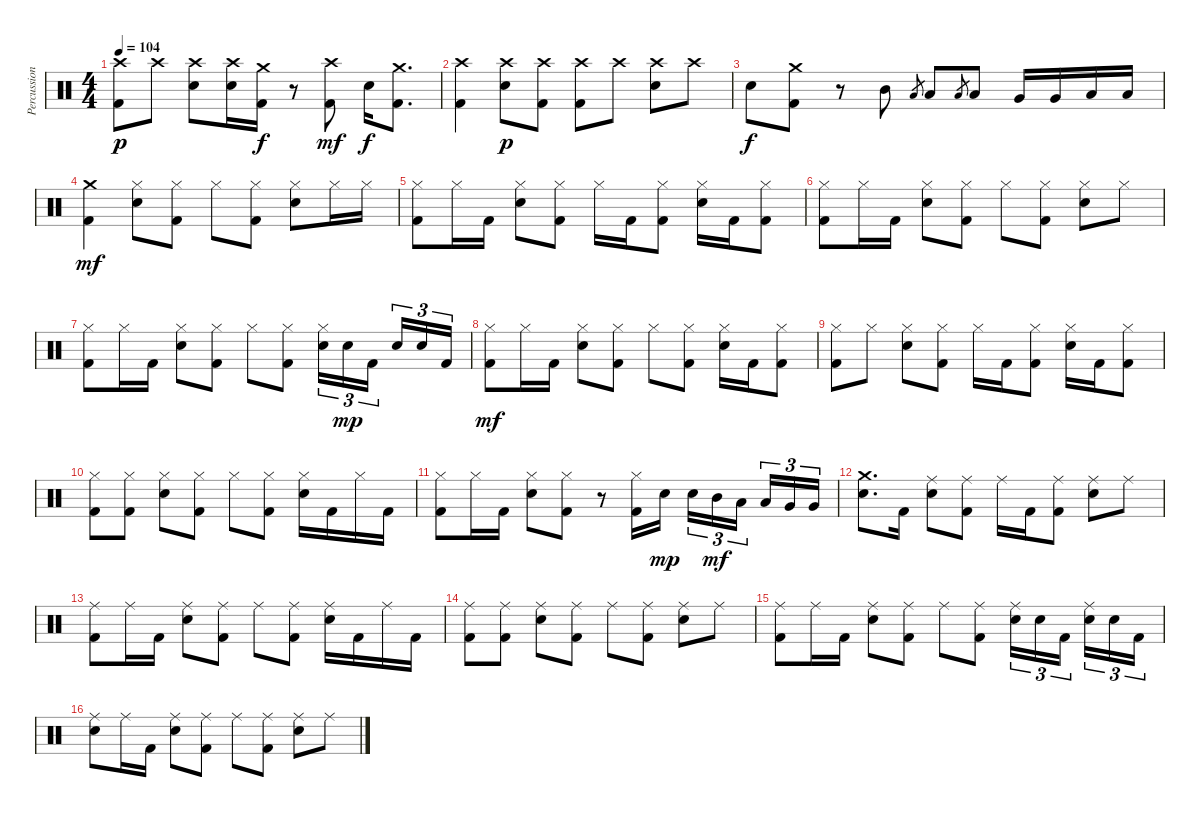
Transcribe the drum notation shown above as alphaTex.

\track ("Percussion" "Percussion") {instrument percussion}
\staff {score}
\articulation defaults
\ts (4 4)
\tempo 104
\clef neutral
\ks c
("Kick (hit) 2" "Crash high (hit)").8{dy p} "Crash high (hit)".8 ("Electric Snare (hit)" "Crash high (hit)").8 ("Electric Snare (hit)" "Crash high (hit)").16 ("Kick (hit) 2" "Crash medium (hit)").16{dy f} r.8 ("Kick (hit) 2" "Crash high (hit)").8{dy mf} "Electric Snare (hit)".16{dy f} ("Kick (hit) 2" "Crash medium (hit)").8{d} |
("Kick (hit) 2" "Crash high (hit)").4 ("Electric Snare (hit)" "Crash high (hit)").8{dy p} ("Kick (hit) 2" "Crash high (hit)").8 ("Kick (hit) 2" "Crash high (hit)").8 "Crash high (hit)".8 ("Electric Snare (hit)" "Crash high (hit)").8 "Crash high (hit)".8 |
"Electric Snare (hit)".8{dy f} ("Kick (hit) 2" "Crash medium (hit)").8 r.8 "Mid Tom (hit)".8 "Low Tom (hit)".8{gr} "Low Tom (hit)".8 "Low Tom (hit)".8{gr} "Low Tom (hit)".8 "Very Low Tom (hit)".16 "Very Low Tom (hit)".16 "Low Floor Tom (hit)".16 "Low Floor Tom (hit)".16 |
("Kick (hit) 2" "Crash medium (hit)").4{dy mf} ("Electric Snare (hit)" "Hi-Hat (closed)").8 ("Kick (hit) 2" "Hi-Hat (closed)").8 "Hi-Hat (closed)".8 ("Kick (hit) 2" "Hi-Hat (closed)").8 ("Electric Snare (hit)" "Hi-Hat (closed)").8 "Hi-Hat (closed)".16 "Hi-Hat (closed)".16 |
("Kick (hit) 2" "Hi-Hat (closed)").8 "Hi-Hat (closed)".16 "Kick (hit) 2".16 ("Electric Snare (hit)" "Hi-Hat (closed)").8 ("Kick (hit) 2" "Hi-Hat (closed)").8 "Hi-Hat (closed)".16 "Kick (hit) 2".16 ("Kick (hit) 2" "Hi-Hat (closed)").8 ("Electric Snare (hit)" "Hi-Hat (closed)").16 "Kick (hit) 2".16 ("Kick (hit) 2" "Hi-Hat (closed)").8 |
("Kick (hit) 2" "Hi-Hat (closed)").8 "Hi-Hat (closed)".16 "Kick (hit) 2".16 ("Electric Snare (hit)" "Hi-Hat (closed)").8 ("Kick (hit) 2" "Hi-Hat (closed)").8 "Hi-Hat (closed)".8 ("Kick (hit) 2" "Hi-Hat (closed)").8 ("Electric Snare (hit)" "Hi-Hat (closed)").8 "Hi-Hat (closed)".8 |
("Kick (hit) 2" "Hi-Hat (closed)").8 "Hi-Hat (closed)".16 "Kick (hit) 2".16 ("Electric Snare (hit)" "Hi-Hat (closed)").8 ("Kick (hit) 2" "Hi-Hat (closed)").8 "Hi-Hat (closed)".8 ("Kick (hit) 2" "Hi-Hat (closed)").8 ("Electric Snare (hit)" "Hi-Hat (closed)").16{tu (3 2)} "Electric Snare (hit)".16{tu (3 2) dy mp} "Kick (hit) 2".16{tu (3 2)} "Electric Snare (hit)".16{tu (3 2)} "Electric Snare (hit)".16{tu (3 2)} "Kick (hit) 2".16{tu (3 2)} |
("Kick (hit) 2" "Hi-Hat (closed)").8{dy mf} "Hi-Hat (closed)".16 "Kick (hit) 2".16 ("Electric Snare (hit)" "Hi-Hat (closed)").8 ("Kick (hit) 2" "Hi-Hat (closed)").8 "Hi-Hat (closed)".8 ("Kick (hit) 2" "Hi-Hat (closed)").8 ("Electric Snare (hit)" "Hi-Hat (closed)").16 "Kick (hit) 2".16 ("Kick (hit) 2" "Hi-Hat (closed)").8 |
("Kick (hit) 2" "Hi-Hat (closed)").8 "Hi-Hat (closed)".8 ("Electric Snare (hit)" "Hi-Hat (closed)").8 ("Kick (hit) 2" "Hi-Hat (closed)").8 "Hi-Hat (closed)".16 "Kick (hit) 2".16 ("Kick (hit) 2" "Hi-Hat (closed)").8 ("Electric Snare (hit)" "Hi-Hat (closed)").16 "Kick (hit) 2".16 ("Kick (hit) 2" "Hi-Hat (closed)").8 |
("Kick (hit) 2" "Hi-Hat (closed)").8 ("Kick (hit) 2" "Hi-Hat (closed)").8 ("Electric Snare (hit)" "Hi-Hat (closed)").8 ("Kick (hit) 2" "Hi-Hat (closed)").8 "Hi-Hat (closed)".8 ("Kick (hit) 2" "Hi-Hat (closed)").8 ("Electric Snare (hit)" "Hi-Hat (closed)").16 "Kick (hit) 2".16 "Hi-Hat (closed)".16 "Kick (hit) 2".16 |
("Kick (hit) 2" "Hi-Hat (closed)").8 "Hi-Hat (closed)".16 "Kick (hit) 2".16 ("Electric Snare (hit)" "Hi-Hat (closed)").8 ("Kick (hit) 2" "Hi-Hat (closed)").8 r.8 ("Kick (hit) 2" "Hi-Hat (closed)").16 "Electric Snare (hit)".16{dy mp} "Electric Snare (hit)".16{tu (3 2)} "Mid Tom (hit)".16{tu (3 2) dy mf} "Low Tom (hit)".16{tu (3 2)} "Low Tom (hit)".16{tu (3 2)} "Very Low Tom (hit)".16{tu (3 2)} "Very Low Tom (hit)".16{tu (3 2)} |
("Electric Snare (hit)" "Crash medium (hit)").8{d} "Kick (hit) 2".16 ("Electric Snare (hit)" "Ride (middle)").8 ("Kick (hit) 2" "Ride (middle)").8 "Ride (middle)".16 "Kick (hit) 2".16 ("Kick (hit) 2" "Ride (middle)").8 ("Electric Snare (hit)" "Ride (middle)").8 "Ride (middle)".8 |
("Kick (hit) 2" "Ride (middle)").8 "Ride (middle)".16 "Kick (hit) 2".16 ("Electric Snare (hit)" "Ride (middle)").8 ("Kick (hit) 2" "Ride (middle)").8 "Ride (middle)".8 ("Kick (hit) 2" "Ride (middle)").8 ("Electric Snare (hit)" "Ride (middle)").16 "Kick (hit) 2".16 "Ride (middle)".16 "Kick (hit) 2".16 |
("Kick (hit) 2" "Ride (middle)").8 ("Kick (hit) 2" "Ride (middle)").8 ("Electric Snare (hit)" "Ride (middle)").8 ("Kick (hit) 2" "Ride (middle)").8 "Ride (middle)".8 ("Kick (hit) 2" "Ride (middle)").8 ("Electric Snare (hit)" "Ride (middle)").8 "Ride (middle)".8 |
("Kick (hit) 2" "Ride (middle)").8 "Ride (middle)".16 "Kick (hit) 2".16 ("Electric Snare (hit)" "Ride (middle)").8 ("Kick (hit) 2" "Ride (middle)").8 "Ride (middle)".8 ("Kick (hit) 2" "Ride (middle)").8 ("Electric Snare (hit)" "Ride (middle)").16{tu (3 2)} "Electric Snare (hit)".16{tu (3 2)} "Kick (hit) 2".16{tu (3 2)} ("Electric Snare (hit)" "Ride (middle)").16{tu (3 2)} "Electric Snare (hit)".16{tu (3 2)} "Kick (hit) 2".16{tu (3 2)} |
("Electric Snare (hit)" "Ride (middle)").8 "Ride (middle)".16 "Kick (hit) 2".16 ("Electric Snare (hit)" "Ride (middle)").8 ("Kick (hit) 2" "Ride (middle)").8 "Ride (middle)".8 ("Kick (hit) 2" "Ride (middle)").8 ("Electric Snare (hit)" "Ride (middle)").8 "Ride (middle)".8
